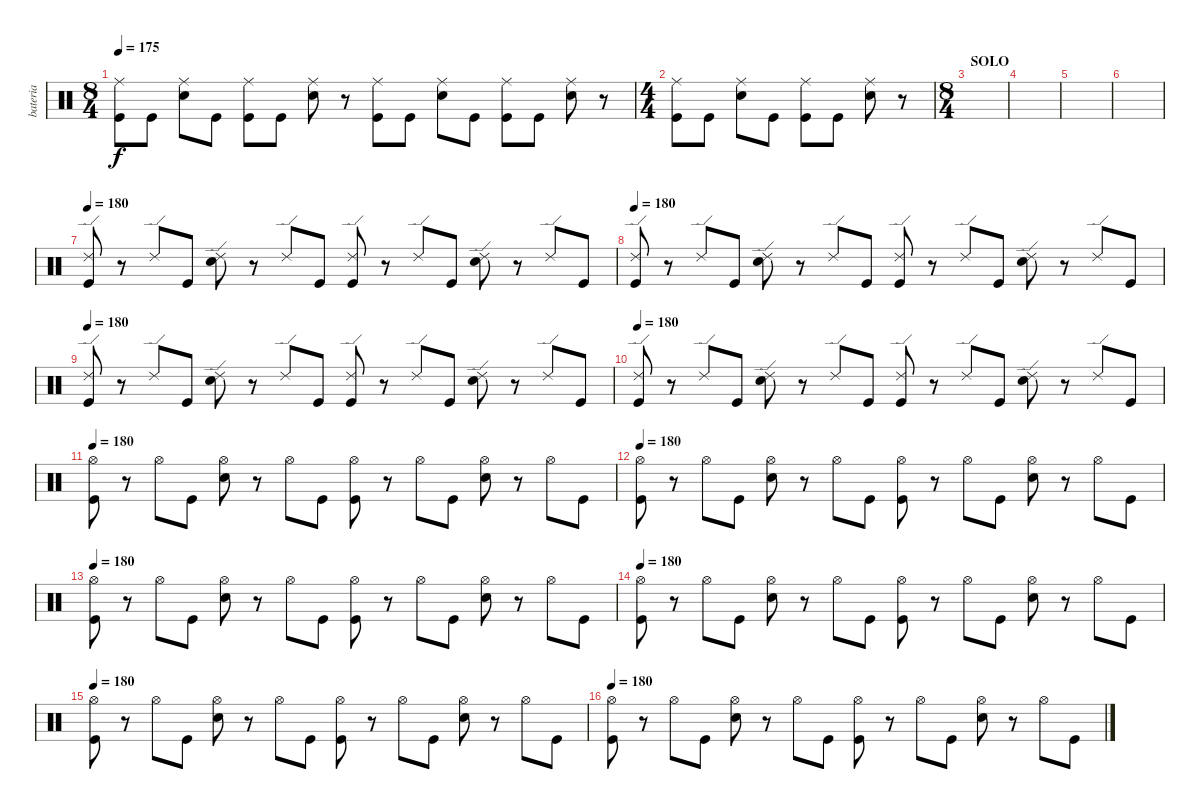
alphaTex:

\track ("bateria" "bateria") {instrument percussion}
\staff {score}
\articulation defaults
\ts (8 4)
\tempo 175
\clef neutral
\ks c
("Ride (middle)" "Kick (hit)").8{dy f} "Kick (hit)".8 ("Ride (middle)" "Snare (hit) 2").8 "Kick (hit)".8 ("Ride (middle)" "Kick (hit)").8 "Kick (hit)".8 ("Ride (middle)" "Snare (hit) 2").8 r.8 ("Ride (middle)" "Kick (hit)").8 "Kick (hit)".8 ("Ride (middle)" "Snare (hit) 2").8 "Kick (hit)".8 ("Ride (middle)" "Kick (hit)").8 "Kick (hit)".8 ("Ride (middle)" "Snare (hit) 2").8 r.8 |
\ts (4 4)
("Ride (middle)" "Kick (hit)").8 "Kick (hit)".8 ("Ride (middle)" "Snare (hit) 2").8 "Kick (hit)".8 ("Ride (middle)" "Kick (hit)").8 "Kick (hit)".8 ("Ride (middle)" "Snare (hit) 2").8 r.8 |
\ts (8 4)
\section ("" "SOLO")
|
|
|
|
\tempo 120
\tempo 180
("Ride (edge) 2" "Kick (hit)").8 r.8 "Ride (edge) 2".8 "Kick (hit)".8 ("Ride (edge) 2" "Snare (hit) 2").8 r.8 "Ride (edge) 2".8 "Kick (hit)".8 ("Ride (edge) 2" "Kick (hit)").8 r.8 "Ride (edge) 2".8 "Kick (hit)".8 ("Ride (edge) 2" "Snare (hit) 2").8 r.8 "Ride (edge) 2".8 "Kick (hit)".8 |
\tempo 180
("Ride (edge) 2" "Kick (hit)").8 r.8 "Ride (edge) 2".8 "Kick (hit)".8 ("Ride (edge) 2" "Snare (hit) 2").8 r.8 "Ride (edge) 2".8 "Kick (hit)".8 ("Ride (edge) 2" "Kick (hit)").8 r.8 "Ride (edge) 2".8 "Kick (hit)".8 ("Ride (edge) 2" "Snare (hit) 2").8 r.8 "Ride (edge) 2".8 "Kick (hit)".8 |
\tempo 180
("Ride (edge) 2" "Kick (hit)").8 r.8 "Ride (edge) 2".8 "Kick (hit)".8 ("Ride (edge) 2" "Snare (hit) 2").8 r.8 "Ride (edge) 2".8 "Kick (hit)".8 ("Ride (edge) 2" "Kick (hit)").8 r.8 "Ride (edge) 2".8 "Kick (hit)".8 ("Ride (edge) 2" "Snare (hit) 2").8 r.8 "Ride (edge) 2".8 "Kick (hit)".8 |
\tempo 180
("Ride (edge) 2" "Kick (hit)").8 r.8 "Ride (edge) 2".8 "Kick (hit)".8 ("Ride (edge) 2" "Snare (hit) 2").8 r.8 "Ride (edge) 2".8 "Kick (hit)".8 ("Ride (edge) 2" "Kick (hit)").8 r.8 "Ride (edge) 2".8 "Kick (hit)".8 ("Ride (edge) 2" "Snare (hit) 2").8 r.8 "Ride (edge) 2".8 "Kick (hit)".8 |
\tempo 180
("Hi-Hat (open)" "Kick (hit)").8 r.8 "Hi-Hat (open)".8 "Kick (hit)".8 ("Hi-Hat (open)" "Snare (hit) 2").8 r.8 "Hi-Hat (open)".8 "Kick (hit)".8 ("Hi-Hat (open)" "Kick (hit)").8 r.8 "Hi-Hat (open)".8 "Kick (hit)".8 ("Hi-Hat (open)" "Snare (hit) 2").8 r.8 "Hi-Hat (open)".8 "Kick (hit)".8 |
\tempo 180
("Hi-Hat (open)" "Kick (hit)").8 r.8 "Hi-Hat (open)".8 "Kick (hit)".8 ("Hi-Hat (open)" "Snare (hit) 2").8 r.8 "Hi-Hat (open)".8 "Kick (hit)".8 ("Hi-Hat (open)" "Kick (hit)").8 r.8 "Hi-Hat (open)".8 "Kick (hit)".8 ("Hi-Hat (open)" "Snare (hit) 2").8 r.8 "Hi-Hat (open)".8 "Kick (hit)".8 |
\tempo 180
("Hi-Hat (open)" "Kick (hit)").8 r.8 "Hi-Hat (open)".8 "Kick (hit)".8 ("Hi-Hat (open)" "Snare (hit) 2").8 r.8 "Hi-Hat (open)".8 "Kick (hit)".8 ("Hi-Hat (open)" "Kick (hit)").8 r.8 "Hi-Hat (open)".8 "Kick (hit)".8 ("Hi-Hat (open)" "Snare (hit) 2").8 r.8 "Hi-Hat (open)".8 "Kick (hit)".8 |
\tempo 180
("Hi-Hat (open)" "Kick (hit)").8 r.8 "Hi-Hat (open)".8 "Kick (hit)".8 ("Hi-Hat (open)" "Snare (hit) 2").8 r.8 "Hi-Hat (open)".8 "Kick (hit)".8 ("Hi-Hat (open)" "Kick (hit)").8 r.8 "Hi-Hat (open)".8 "Kick (hit)".8 ("Hi-Hat (open)" "Snare (hit) 2").8 r.8 "Hi-Hat (open)".8 "Kick (hit)".8 |
\tempo 180
("Hi-Hat (open)" "Kick (hit)").8 r.8 "Hi-Hat (open)".8 "Kick (hit)".8 ("Hi-Hat (open)" "Snare (hit) 2").8 r.8 "Hi-Hat (open)".8 "Kick (hit)".8 ("Hi-Hat (open)" "Kick (hit)").8 r.8 "Hi-Hat (open)".8 "Kick (hit)".8 ("Hi-Hat (open)" "Snare (hit) 2").8 r.8 "Hi-Hat (open)".8 "Kick (hit)".8 |
\tempo 180
("Hi-Hat (open)" "Kick (hit)").8 r.8 "Hi-Hat (open)".8 "Kick (hit)".8 ("Hi-Hat (open)" "Snare (hit) 2").8 r.8 "Hi-Hat (open)".8 "Kick (hit)".8 ("Hi-Hat (open)" "Kick (hit)").8 r.8 "Hi-Hat (open)".8 "Kick (hit)".8 ("Hi-Hat (open)" "Snare (hit) 2").8 r.8 "Hi-Hat (open)".8 "Kick (hit)".8
